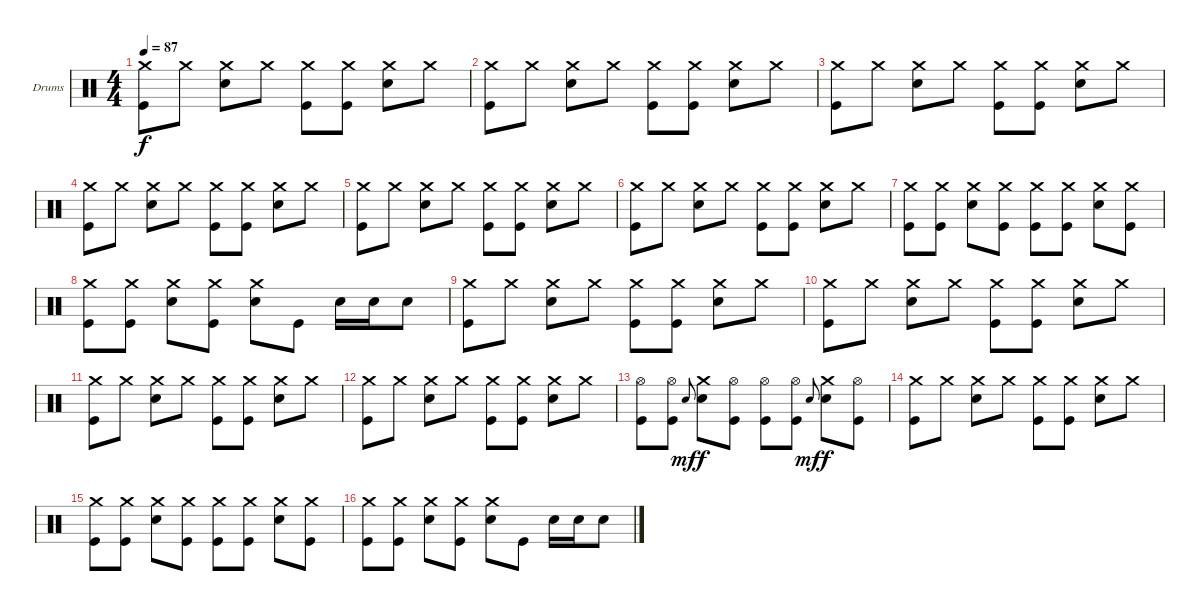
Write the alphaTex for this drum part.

\bracketExtendMode groupsimilarinstruments
\firstSystemTrackNameOrientation horizontal
\otherSystemsTrackNameOrientation horizontal
\track ("Drumkit" "Drums") {instrument percussion}
\staff {score}
\articulation defaults
\ts (4 4)
\tempo 87
\clef neutral
\ks c
("Crash medium (hit)" "Kick (hit)").8{dy f} "Crash medium (hit)".8 ("Crash medium (hit)" "Snare (hit) 2").8 "Crash medium (hit)".8 ("Crash medium (hit)" "Kick (hit)").8 ("Crash medium (hit)" "Kick (hit)").8 ("Crash medium (hit)" "Snare (hit) 2").8 "Crash medium (hit)".8 |
("Crash medium (hit)" "Kick (hit)").8 "Crash medium (hit)".8 ("Crash medium (hit)" "Snare (hit) 2").8 "Crash medium (hit)".8 ("Crash medium (hit)" "Kick (hit)").8 ("Crash medium (hit)" "Kick (hit)").8 ("Crash medium (hit)" "Snare (hit) 2").8 "Crash medium (hit)".8 |
("Crash medium (hit)" "Kick (hit)").8 "Crash medium (hit)".8 ("Crash medium (hit)" "Snare (hit) 2").8 "Crash medium (hit)".8 ("Crash medium (hit)" "Kick (hit)").8 ("Crash medium (hit)" "Kick (hit)").8 ("Crash medium (hit)" "Snare (hit) 2").8 "Crash medium (hit)".8 |
("Crash medium (hit)" "Kick (hit)").8 "Crash medium (hit)".8 ("Crash medium (hit)" "Snare (hit) 2").8 "Crash medium (hit)".8 ("Crash medium (hit)" "Kick (hit)").8 ("Crash medium (hit)" "Kick (hit)").8 ("Crash medium (hit)" "Snare (hit) 2").8 "Crash medium (hit)".8 |
("Crash medium (hit)" "Kick (hit)").8 "Crash medium (hit)".8 ("Crash medium (hit)" "Snare (hit) 2").8 "Crash medium (hit)".8 ("Crash medium (hit)" "Kick (hit)").8 ("Crash medium (hit)" "Kick (hit)").8 ("Crash medium (hit)" "Snare (hit) 2").8 "Crash medium (hit)".8 |
("Crash medium (hit)" "Kick (hit)").8 "Crash medium (hit)".8 ("Crash medium (hit)" "Snare (hit) 2").8 "Crash medium (hit)".8 ("Crash medium (hit)" "Kick (hit)").8 ("Crash medium (hit)" "Kick (hit)").8 ("Crash medium (hit)" "Snare (hit) 2").8 "Crash medium (hit)".8 |
("Crash medium (hit)" "Kick (hit)").8 ("Crash medium (hit)" "Kick (hit)").8 ("Crash medium (hit)" "Snare (hit) 2").8 ("Crash medium (hit)" "Kick (hit)").8 ("Crash medium (hit)" "Kick (hit)").8 ("Crash medium (hit)" "Kick (hit)").8 ("Crash medium (hit)" "Snare (hit) 2").8 ("Crash medium (hit)" "Kick (hit)").8 |
("Crash medium (hit)" "Kick (hit)").8 ("Crash medium (hit)" "Kick (hit)").8 ("Crash medium (hit)" "Snare (hit) 2").8 ("Crash medium (hit)" "Kick (hit)").8 ("Crash medium (hit)" "Snare (hit) 2").8 "Kick (hit)".8 "Snare (hit) 2".16 "Snare (hit) 2".16 "Snare (hit) 2".8 |
("Crash medium (hit)" "Kick (hit)").8 "Crash medium (hit)".8 ("Crash medium (hit)" "Snare (hit) 2").8 "Crash medium (hit)".8 ("Crash medium (hit)" "Kick (hit)").8 ("Crash medium (hit)" "Kick (hit)").8 ("Crash medium (hit)" "Snare (hit) 2").8 "Crash medium (hit)".8 |
("Crash medium (hit)" "Kick (hit)").8 "Crash medium (hit)".8 ("Crash medium (hit)" "Snare (hit) 2").8 "Crash medium (hit)".8 ("Crash medium (hit)" "Kick (hit)").8 ("Crash medium (hit)" "Kick (hit)").8 ("Crash medium (hit)" "Snare (hit) 2").8 "Crash medium (hit)".8 |
("Crash medium (hit)" "Kick (hit)").8 "Crash medium (hit)".8 ("Crash medium (hit)" "Snare (hit) 2").8 "Crash medium (hit)".8 ("Crash medium (hit)" "Kick (hit)").8 ("Crash medium (hit)" "Kick (hit)").8 ("Crash medium (hit)" "Snare (hit) 2").8 "Crash medium (hit)".8 |
("Crash medium (hit)" "Kick (hit)").8 "Crash medium (hit)".8 ("Crash medium (hit)" "Snare (hit) 2").8 "Crash medium (hit)".8 ("Crash medium (hit)" "Kick (hit)").8 ("Crash medium (hit)" "Kick (hit)").8 ("Crash medium (hit)" "Snare (hit) 2").8 "Crash medium (hit)".8 |
("Hi-Hat (open)" "Kick (hit)").8 ("Hi-Hat (open)" "Kick (hit)").8 "Snare (hit) 2".8{gr onbeat dy mf} ("Crash medium (hit)" "Snare (hit) 2").8{dy f} ("Hi-Hat (open)" "Kick (hit)").8 ("Hi-Hat (open)" "Kick (hit)").8 ("Hi-Hat (open)" "Kick (hit)").8 "Snare (hit) 2".8{gr onbeat dy mf} ("Crash medium (hit)" "Snare (hit) 2").8{dy f} ("Hi-Hat (open)" "Kick (hit)").8 |
("Crash medium (hit)" "Kick (hit)").8 "Crash medium (hit)".8 ("Crash medium (hit)" "Snare (hit) 2").8 "Crash medium (hit)".8 ("Crash medium (hit)" "Kick (hit)").8 ("Crash medium (hit)" "Kick (hit)").8 ("Crash medium (hit)" "Snare (hit) 2").8 "Crash medium (hit)".8 |
("Crash medium (hit)" "Kick (hit)").8 ("Crash medium (hit)" "Kick (hit)").8 ("Crash medium (hit)" "Snare (hit) 2").8 ("Crash medium (hit)" "Kick (hit)").8 ("Crash medium (hit)" "Kick (hit)").8 ("Crash medium (hit)" "Kick (hit)").8 ("Crash medium (hit)" "Snare (hit) 2").8 ("Crash medium (hit)" "Kick (hit)").8 |
("Crash medium (hit)" "Kick (hit)").8 ("Crash medium (hit)" "Kick (hit)").8 ("Crash medium (hit)" "Snare (hit) 2").8 ("Crash medium (hit)" "Kick (hit)").8 ("Crash medium (hit)" "Snare (hit) 2").8 "Kick (hit)".8 "Snare (hit) 2".16 "Snare (hit) 2".16 "Snare (hit) 2".8
